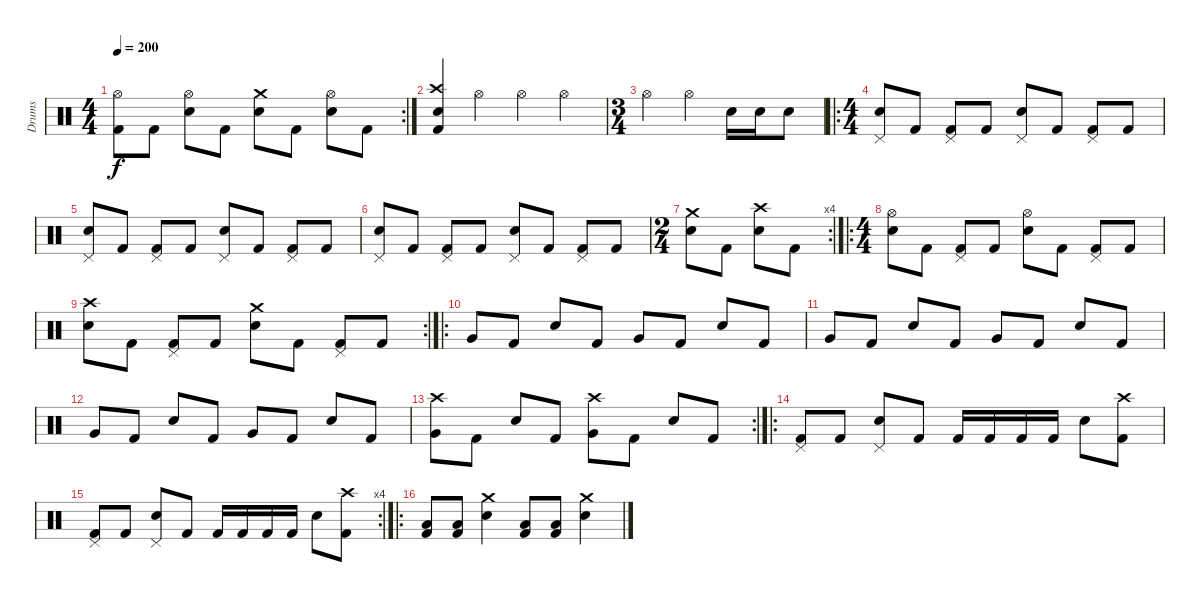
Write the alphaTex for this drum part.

\track ("Drums" "Drums") {instrument percussion}
\staff {score}
\articulation defaults
\rc 2
\ts (4 4)
\tempo 200
\clef neutral
\ks c
("Hi-Hat (open)" "Kick (hit) 2").8{dy f} "Kick (hit) 2".8 ("Hi-Hat (open)" "Snare (hit) 2").8 "Kick (hit) 2".8 ("Crash medium (hit)" "Snare (hit) 2").8 "Kick (hit) 2".8 ("Hi-Hat (open)" "Snare (hit) 2").8 "Kick (hit) 2".8 |
("Crash high (hit)" "Electric Snare (hit)" "Kick (hit) 2").4 "Hi-Hat (open)".4 "Hi-Hat (open)".4 "Hi-Hat (open)".4 |
\ts (3 4)
"Hi-Hat (open)".4 "Hi-Hat (open)".4 "Electric Snare (hit)".16 "Electric Snare (hit)".16 "Electric Snare (hit)".8 |
\ro
\ts (4 4)
("Pedal Hi-Hat (hit)" "Electric Snare (hit)").8 "Kick (hit) 2".8 ("Pedal Hi-Hat (hit)" "Kick (hit) 2").8 "Kick (hit) 2".8 ("Pedal Hi-Hat (hit)" "Electric Snare (hit)").8 "Kick (hit) 2".8 ("Pedal Hi-Hat (hit)" "Kick (hit) 2").8 "Kick (hit) 2".8 |
("Pedal Hi-Hat (hit)" "Electric Snare (hit)").8 "Kick (hit) 2".8 ("Pedal Hi-Hat (hit)" "Kick (hit) 2").8 "Kick (hit) 2".8 ("Pedal Hi-Hat (hit)" "Electric Snare (hit)").8 "Kick (hit) 2".8 ("Pedal Hi-Hat (hit)" "Kick (hit) 2").8 "Kick (hit) 2".8 |
("Pedal Hi-Hat (hit)" "Electric Snare (hit)").8 "Kick (hit) 2".8 ("Pedal Hi-Hat (hit)" "Kick (hit) 2").8 "Kick (hit) 2".8 ("Pedal Hi-Hat (hit)" "Electric Snare (hit)").8 "Kick (hit) 2".8 ("Pedal Hi-Hat (hit)" "Kick (hit) 2").8 "Kick (hit) 2".8 |
\rc 4
\ts (2 4)
("Crash medium (hit)" "Electric Snare (hit)").8 "Kick (hit) 2".8 ("Crash high (hit)" "Electric Snare (hit)").8 "Kick (hit) 2".8 |
\ro
\ts (4 4)
("Hi-Hat (open)" "Electric Snare (hit)").8 "Kick (hit) 2".8 ("Pedal Hi-Hat (hit)" "Kick (hit) 2").8 "Kick (hit) 2".8 ("Hi-Hat (open)" "Electric Snare (hit)").8 "Kick (hit) 2".8 ("Pedal Hi-Hat (hit)" "Kick (hit) 2").8 "Kick (hit) 2".8 |
\rc 2
("Crash high (hit)" "Electric Snare (hit)").8 "Kick (hit) 2".8 ("Pedal Hi-Hat (hit)" "Kick (hit) 2").8 "Kick (hit) 2".8 ("Crash medium (hit)" "Electric Snare (hit)").8 "Kick (hit) 2".8 ("Pedal Hi-Hat (hit)" "Kick (hit) 2").8 "Kick (hit) 2".8 |
\ro "Very Low Tom (hit)".8 "Kick (hit) 2".8 "Electric Snare (hit)".8 "Kick (hit) 2".8 "Very Low Tom (hit)".8 "Kick (hit) 2".8 "Electric Snare (hit)".8 "Kick (hit) 2".8
|
"Very Low Tom (hit)".8 "Kick (hit) 2".8 "Electric Snare (hit)".8 "Kick (hit) 2".8 "Very Low Tom (hit)".8 "Kick (hit) 2".8 "Electric Snare (hit)".8 "Kick (hit) 2".8 |
"Very Low Tom (hit)".8 "Kick (hit) 2".8 "Electric Snare (hit)".8 "Kick (hit) 2".8 "Very Low Tom (hit)".8 "Kick (hit) 2".8 "Electric Snare (hit)".8 "Kick (hit) 2".8 |
\rc 2
("Very Low Tom (hit)" "Crash high (hit)").8 "Kick (hit) 2".8 "Electric Snare (hit)".8 "Kick (hit) 2".8 ("Very Low Tom (hit)" "Crash high (hit)").8 "Kick (hit) 2".8 "Electric Snare (hit)".8 "Kick (hit) 2".8 |
\ro
("Pedal Hi-Hat (hit)" "Kick (hit) 2").8 "Kick (hit) 2".8 ("Pedal Hi-Hat (hit)" "Electric Snare (hit)").8 "Kick (hit) 2".8 "Kick (hit) 2".16 "Kick (hit) 2".16 "Kick (hit) 2".16 "Kick (hit) 2".16 "Electric Snare (hit)".8 ("Crash high (hit)" "Kick (hit) 2").8 |
\rc 4
("Pedal Hi-Hat (hit)" "Kick (hit) 2").8 "Kick (hit) 2".8 ("Pedal Hi-Hat (hit)" "Electric Snare (hit)").8 "Kick (hit) 2".8 "Kick (hit) 2".16 "Kick (hit) 2".16 "Kick (hit) 2".16 "Kick (hit) 2".16 "Electric Snare (hit)".8 ("Crash high (hit)" "Kick (hit) 2").8 |
\ro
("Low Tom (hit)" "Kick (hit) 2").8 ("Low Tom (hit)" "Kick (hit) 2").8 ("Crash medium (hit)" "Electric Snare (hit)").4 ("Low Tom (hit)" "Kick (hit) 2").8 ("Low Tom (hit)" "Kick (hit) 2").8 ("Crash medium (hit)" "Electric Snare (hit)").4
